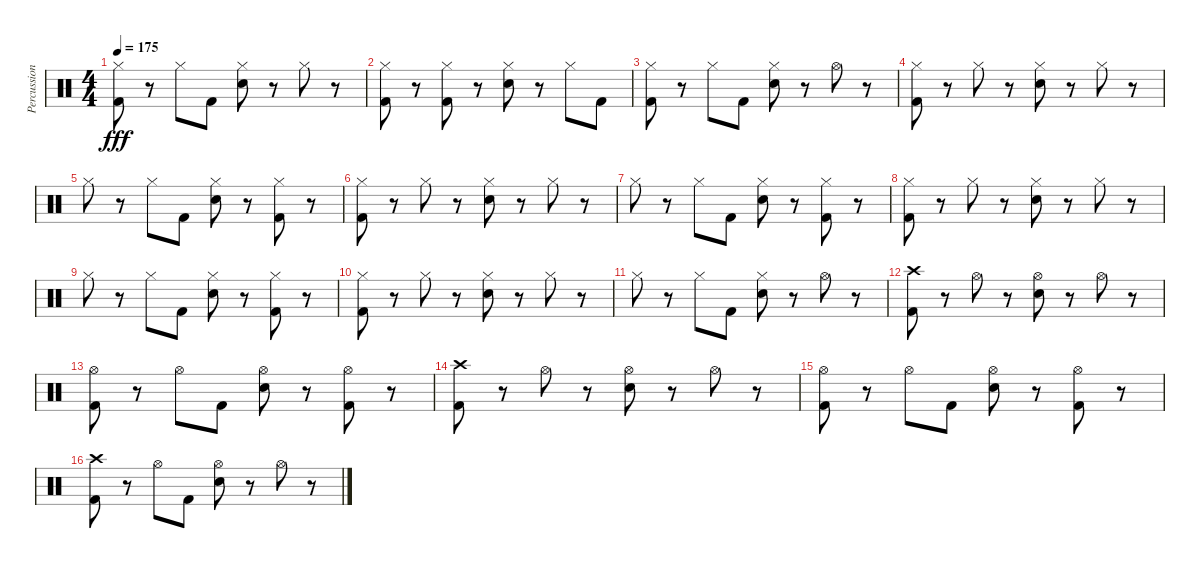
\track ("Percussion" "Percussion") {instrument percussion}
\staff {score}
\articulation defaults
\ts (4 4)
\tempo 175
\clef neutral
\ks c
("Hi-Hat (closed)" "Kick (hit) 2").8{dy fff} r.8 "Hi-Hat (closed)".8 "Kick (hit) 2".8 ("Hi-Hat (closed)" "Electric Snare (hit)").8 r.8 "Hi-Hat (closed)".8 r.8 |
("Hi-Hat (closed)" "Kick (hit) 2").8 r.8 ("Hi-Hat (closed)" "Kick (hit) 2").8 r.8 ("Hi-Hat (closed)" "Electric Snare (hit)").8 r.8 "Hi-Hat (closed)".8 "Kick (hit) 2".8 |
("Hi-Hat (closed)" "Kick (hit) 2").8 r.8 "Hi-Hat (closed)".8 "Kick (hit) 2".8 ("Hi-Hat (closed)" "Electric Snare (hit)").8 r.8 "Hi-Hat (open)".8 r.8 |
("Hi-Hat (closed)" "Kick (hit) 2").8 r.8 "Hi-Hat (closed)".8 r.8 ("Hi-Hat (closed)" "Electric Snare (hit)").8 r.8 "Hi-Hat (closed)".8 r.8 |
"Hi-Hat (closed)".8 r.8 "Hi-Hat (closed)".8 "Kick (hit) 2".8 ("Hi-Hat (closed)" "Electric Snare (hit)").8 r.8 ("Hi-Hat (closed)" "Kick (hit) 2").8 r.8 |
("Hi-Hat (closed)" "Kick (hit) 2").8 r.8 "Hi-Hat (closed)".8 r.8 ("Hi-Hat (closed)" "Electric Snare (hit)").8 r.8 "Hi-Hat (closed)".8 r.8 |
"Hi-Hat (closed)".8 r.8 "Hi-Hat (closed)".8 "Kick (hit) 2".8 ("Hi-Hat (closed)" "Electric Snare (hit)").8 r.8 ("Hi-Hat (closed)" "Kick (hit) 2").8 r.8 |
("Hi-Hat (closed)" "Kick (hit) 2").8 r.8 "Hi-Hat (closed)".8 r.8 ("Hi-Hat (closed)" "Electric Snare (hit)").8 r.8 "Hi-Hat (closed)".8 r.8 |
"Hi-Hat (closed)".8 r.8 "Hi-Hat (closed)".8 "Kick (hit) 2".8 ("Hi-Hat (closed)" "Electric Snare (hit)").8 r.8 ("Hi-Hat (closed)" "Kick (hit) 2").8 r.8 |
("Hi-Hat (closed)" "Kick (hit) 2").8 r.8 "Hi-Hat (closed)".8 r.8 ("Hi-Hat (closed)" "Electric Snare (hit)").8 r.8 "Hi-Hat (closed)".8 r.8 |
"Hi-Hat (closed)".8 r.8 "Hi-Hat (closed)".8 "Kick (hit) 2".8 ("Hi-Hat (closed)" "Electric Snare (hit)").8 r.8 "Hi-Hat (open)".8 r.8 |
("Crash high (hit)" "Kick (hit) 2").8 r.8 "Hi-Hat (open)".8 r.8 ("Hi-Hat (open)" "Electric Snare (hit)").8 r.8 "Hi-Hat (open)".8 r.8 |
("Hi-Hat (open)" "Kick (hit) 2").8 r.8 "Hi-Hat (open)".8 "Kick (hit) 2".8 ("Hi-Hat (open)" "Electric Snare (hit)").8 r.8 ("Hi-Hat (open)" "Kick (hit) 2").8 r.8 |
("Crash high (hit)" "Kick (hit) 2").8 r.8 "Hi-Hat (open)".8 r.8 ("Hi-Hat (open)" "Electric Snare (hit)").8 r.8 "Hi-Hat (open)".8 r.8 |
("Hi-Hat (open)" "Kick (hit) 2").8 r.8 "Hi-Hat (open)".8 "Kick (hit) 2".8 ("Hi-Hat (open)" "Electric Snare (hit)").8 r.8 ("Hi-Hat (open)" "Kick (hit) 2").8 r.8 |
("Crash high (hit)" "Kick (hit) 2").8 r.8 "Hi-Hat (open)".8 "Kick (hit) 2".8 ("Hi-Hat (open)" "Electric Snare (hit)").8 r.8 "Hi-Hat (open)".8 r.8
